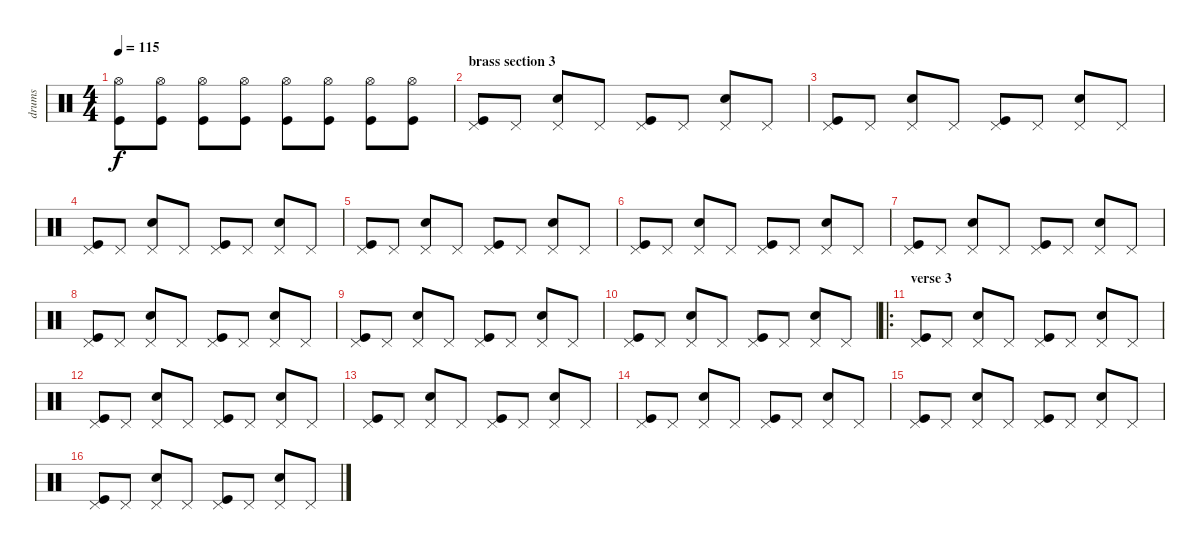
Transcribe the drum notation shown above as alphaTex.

\track ("drums" "drums") {instrument percussion}
\staff {score}
\articulation defaults
\ts (4 4)
\tempo 115
\clef neutral
\ks c
("Hi-Hat (open)" "Kick (hit)").8{dy f} ("Hi-Hat (open)" "Kick (hit)").8 ("Hi-Hat (open)" "Kick (hit)").8 ("Hi-Hat (open)" "Kick (hit)").8 ("Hi-Hat (open)" "Kick (hit)").8 ("Hi-Hat (open)" "Kick (hit)").8 ("Hi-Hat (open)" "Kick (hit)").8 ("Hi-Hat (open)" "Kick (hit)").8 |
\section ("" "brass section 3")
("Pedal Hi-Hat (hit)" "Kick (hit)").8 "Pedal Hi-Hat (hit)".8 ("Pedal Hi-Hat (hit)" "Electric Snare (hit)").8 "Pedal Hi-Hat (hit)".8 ("Pedal Hi-Hat (hit)" "Kick (hit)").8 "Pedal Hi-Hat (hit)".8 ("Pedal Hi-Hat (hit)" "Electric Snare (hit)").8 "Pedal Hi-Hat (hit)".8 |
("Pedal Hi-Hat (hit)" "Kick (hit)").8 "Pedal Hi-Hat (hit)".8 ("Pedal Hi-Hat (hit)" "Electric Snare (hit)").8 "Pedal Hi-Hat (hit)".8 ("Pedal Hi-Hat (hit)" "Kick (hit)").8 "Pedal Hi-Hat (hit)".8 ("Pedal Hi-Hat (hit)" "Electric Snare (hit)").8 "Pedal Hi-Hat (hit)".8 |
("Pedal Hi-Hat (hit)" "Kick (hit)").8 "Pedal Hi-Hat (hit)".8 ("Pedal Hi-Hat (hit)" "Electric Snare (hit)").8 "Pedal Hi-Hat (hit)".8 ("Pedal Hi-Hat (hit)" "Kick (hit)").8 "Pedal Hi-Hat (hit)".8 ("Pedal Hi-Hat (hit)" "Electric Snare (hit)").8 "Pedal Hi-Hat (hit)".8 |
("Pedal Hi-Hat (hit)" "Kick (hit)").8 "Pedal Hi-Hat (hit)".8 ("Pedal Hi-Hat (hit)" "Electric Snare (hit)").8 "Pedal Hi-Hat (hit)".8 ("Pedal Hi-Hat (hit)" "Kick (hit)").8 "Pedal Hi-Hat (hit)".8 ("Pedal Hi-Hat (hit)" "Electric Snare (hit)").8 "Pedal Hi-Hat (hit)".8 |
("Pedal Hi-Hat (hit)" "Kick (hit)").8 "Pedal Hi-Hat (hit)".8 ("Pedal Hi-Hat (hit)" "Electric Snare (hit)").8 "Pedal Hi-Hat (hit)".8 ("Pedal Hi-Hat (hit)" "Kick (hit)").8 "Pedal Hi-Hat (hit)".8 ("Pedal Hi-Hat (hit)" "Electric Snare (hit)").8 "Pedal Hi-Hat (hit)".8 |
("Pedal Hi-Hat (hit)" "Kick (hit)").8 "Pedal Hi-Hat (hit)".8 ("Pedal Hi-Hat (hit)" "Electric Snare (hit)").8 "Pedal Hi-Hat (hit)".8 ("Pedal Hi-Hat (hit)" "Kick (hit)").8 "Pedal Hi-Hat (hit)".8 ("Pedal Hi-Hat (hit)" "Electric Snare (hit)").8 "Pedal Hi-Hat (hit)".8 |
("Pedal Hi-Hat (hit)" "Kick (hit)").8 "Pedal Hi-Hat (hit)".8 ("Pedal Hi-Hat (hit)" "Electric Snare (hit)").8 "Pedal Hi-Hat (hit)".8 ("Pedal Hi-Hat (hit)" "Kick (hit)").8 "Pedal Hi-Hat (hit)".8 ("Pedal Hi-Hat (hit)" "Electric Snare (hit)").8 "Pedal Hi-Hat (hit)".8 |
("Pedal Hi-Hat (hit)" "Kick (hit)").8 "Pedal Hi-Hat (hit)".8 ("Pedal Hi-Hat (hit)" "Electric Snare (hit)").8 "Pedal Hi-Hat (hit)".8 ("Pedal Hi-Hat (hit)" "Kick (hit)").8 "Pedal Hi-Hat (hit)".8 ("Pedal Hi-Hat (hit)" "Electric Snare (hit)").8 "Pedal Hi-Hat (hit)".8 |
("Pedal Hi-Hat (hit)" "Kick (hit)").8 "Pedal Hi-Hat (hit)".8 ("Pedal Hi-Hat (hit)" "Electric Snare (hit)").8 "Pedal Hi-Hat (hit)".8 ("Pedal Hi-Hat (hit)" "Kick (hit)").8 "Pedal Hi-Hat (hit)".8 ("Pedal Hi-Hat (hit)" "Electric Snare (hit)").8 "Pedal Hi-Hat (hit)".8 |
\ro
\section ("" "verse 3")
("Pedal Hi-Hat (hit)" "Kick (hit)").8 "Pedal Hi-Hat (hit)".8 ("Pedal Hi-Hat (hit)" "Electric Snare (hit)").8 "Pedal Hi-Hat (hit)".8 ("Pedal Hi-Hat (hit)" "Kick (hit)").8 "Pedal Hi-Hat (hit)".8 ("Pedal Hi-Hat (hit)" "Electric Snare (hit)").8 "Pedal Hi-Hat (hit)".8 |
("Pedal Hi-Hat (hit)" "Kick (hit)").8 "Pedal Hi-Hat (hit)".8 ("Pedal Hi-Hat (hit)" "Electric Snare (hit)").8 "Pedal Hi-Hat (hit)".8 ("Pedal Hi-Hat (hit)" "Kick (hit)").8 "Pedal Hi-Hat (hit)".8 ("Pedal Hi-Hat (hit)" "Electric Snare (hit)").8 "Pedal Hi-Hat (hit)".8 |
("Pedal Hi-Hat (hit)" "Kick (hit)").8 "Pedal Hi-Hat (hit)".8 ("Pedal Hi-Hat (hit)" "Electric Snare (hit)").8 "Pedal Hi-Hat (hit)".8 ("Pedal Hi-Hat (hit)" "Kick (hit)").8 "Pedal Hi-Hat (hit)".8 ("Pedal Hi-Hat (hit)" "Electric Snare (hit)").8 "Pedal Hi-Hat (hit)".8 |
("Pedal Hi-Hat (hit)" "Kick (hit)").8 "Pedal Hi-Hat (hit)".8 ("Pedal Hi-Hat (hit)" "Electric Snare (hit)").8 "Pedal Hi-Hat (hit)".8 ("Pedal Hi-Hat (hit)" "Kick (hit)").8 "Pedal Hi-Hat (hit)".8 ("Pedal Hi-Hat (hit)" "Electric Snare (hit)").8 "Pedal Hi-Hat (hit)".8 |
("Pedal Hi-Hat (hit)" "Kick (hit)").8 "Pedal Hi-Hat (hit)".8 ("Pedal Hi-Hat (hit)" "Electric Snare (hit)").8 "Pedal Hi-Hat (hit)".8 ("Pedal Hi-Hat (hit)" "Kick (hit)").8 "Pedal Hi-Hat (hit)".8 ("Pedal Hi-Hat (hit)" "Electric Snare (hit)").8 "Pedal Hi-Hat (hit)".8 |
("Pedal Hi-Hat (hit)" "Kick (hit)").8 "Pedal Hi-Hat (hit)".8 ("Pedal Hi-Hat (hit)" "Electric Snare (hit)").8 "Pedal Hi-Hat (hit)".8 ("Pedal Hi-Hat (hit)" "Kick (hit)").8 "Pedal Hi-Hat (hit)".8 ("Pedal Hi-Hat (hit)" "Electric Snare (hit)").8 "Pedal Hi-Hat (hit)".8
